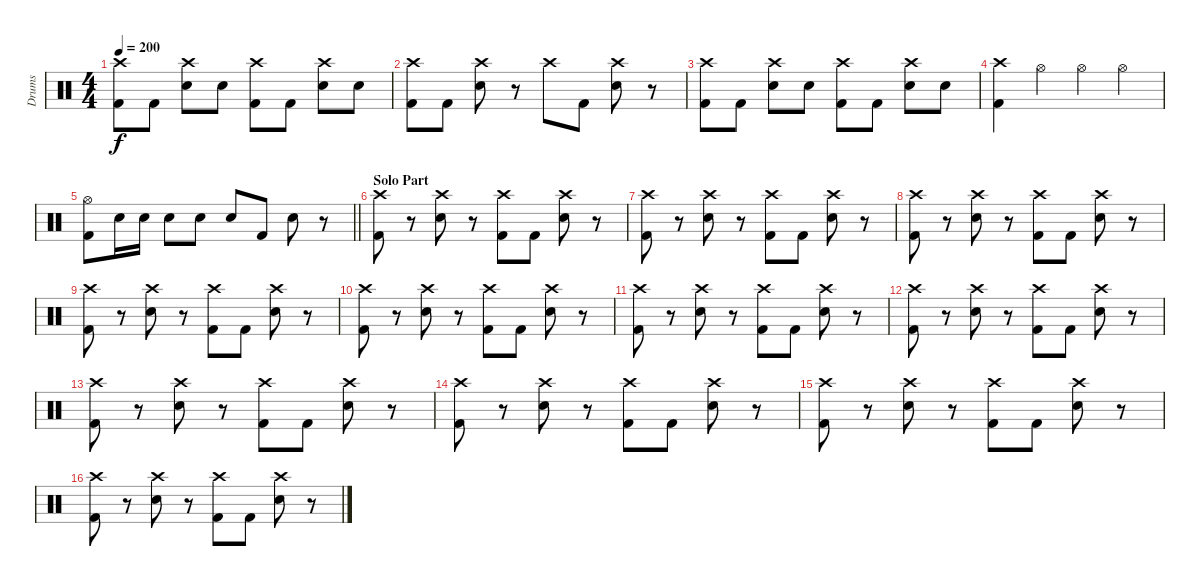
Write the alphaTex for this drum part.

\track ("Drums" "Drums") {instrument percussion}
\staff {score}
\articulation defaults
\ts (4 4)
\tempo 200
\clef neutral
\ks c
("Crash high (hit)" "Kick (hit) 2").8{dy f} "Kick (hit) 2".8 ("Crash high (hit)" "Electric Snare (hit)").8 "Electric Snare (hit)".8 ("Crash high (hit)" "Kick (hit) 2").8 "Kick (hit) 2".8 ("Crash high (hit)" "Electric Snare (hit)").8 "Electric Snare (hit)".8 |
("Crash high (hit)" "Kick (hit) 2").8 "Kick (hit) 2".8 ("Crash high (hit)" "Electric Snare (hit)").8 r.8 "Crash high (hit)".8 "Kick (hit) 2".8 ("Crash high (hit)" "Electric Snare (hit)").8 r.8 |
("Crash high (hit)" "Kick (hit) 2").8 "Kick (hit) 2".8 ("Crash high (hit)" "Electric Snare (hit)").8 "Electric Snare (hit)".8 ("Crash high (hit)" "Kick (hit) 2").8 "Kick (hit) 2".8 ("Crash high (hit)" "Electric Snare (hit)").8 "Electric Snare (hit)".8 |
("Crash high (hit)" "Kick (hit) 2").4 "Hi-Hat (open)".4 "Hi-Hat (open)".4 "Hi-Hat (open)".4 |
\barLineRight lightlight
("Hi-Hat (open)" "Kick (hit) 2").8 "Electric Snare (hit)".16 "Electric Snare (hit)".16 "Electric Snare (hit)".8 "Electric Snare (hit)".8 "Electric Snare (hit)".8 "Kick (hit) 2".8 "Electric Snare (hit)".8 r.8 |
\section ("" "Solo Part")
("Crash high (hit)" "Kick (hit) 2").8 r.8 ("Crash high (hit)" "Electric Snare (hit)").8 r.8 ("Crash high (hit)" "Kick (hit) 2").8 "Kick (hit) 2".8 ("Crash high (hit)" "Electric Snare (hit)").8 r.8 |
("Crash high (hit)" "Kick (hit) 2").8 r.8 ("Crash high (hit)" "Electric Snare (hit)").8 r.8 ("Crash high (hit)" "Kick (hit) 2").8 "Kick (hit) 2".8 ("Crash high (hit)" "Electric Snare (hit)").8 r.8 |
("Crash high (hit)" "Kick (hit) 2").8 r.8 ("Crash high (hit)" "Electric Snare (hit)").8 r.8 ("Crash high (hit)" "Kick (hit) 2").8 "Kick (hit) 2".8 ("Crash high (hit)" "Electric Snare (hit)").8 r.8 |
("Crash high (hit)" "Kick (hit) 2").8 r.8 ("Crash high (hit)" "Electric Snare (hit)").8 r.8 ("Crash high (hit)" "Kick (hit) 2").8 "Kick (hit) 2".8 ("Crash high (hit)" "Electric Snare (hit)").8 r.8 |
("Crash high (hit)" "Kick (hit) 2").8 r.8 ("Crash high (hit)" "Electric Snare (hit)").8 r.8 ("Crash high (hit)" "Kick (hit) 2").8 "Kick (hit) 2".8 ("Crash high (hit)" "Electric Snare (hit)").8 r.8 |
("Crash high (hit)" "Kick (hit) 2").8 r.8 ("Crash high (hit)" "Electric Snare (hit)").8 r.8 ("Crash high (hit)" "Kick (hit) 2").8 "Kick (hit) 2".8 ("Crash high (hit)" "Electric Snare (hit)").8 r.8 |
("Crash high (hit)" "Kick (hit) 2").8 r.8 ("Crash high (hit)" "Electric Snare (hit)").8 r.8 ("Crash high (hit)" "Kick (hit) 2").8 "Kick (hit) 2".8 ("Crash high (hit)" "Electric Snare (hit)").8 r.8 |
("Crash high (hit)" "Kick (hit) 2").8 r.8 ("Crash high (hit)" "Electric Snare (hit)").8 r.8 ("Crash high (hit)" "Kick (hit) 2").8 "Kick (hit) 2".8 ("Crash high (hit)" "Electric Snare (hit)").8 r.8 |
("Crash high (hit)" "Kick (hit) 2").8 r.8 ("Crash high (hit)" "Electric Snare (hit)").8 r.8 ("Crash high (hit)" "Kick (hit) 2").8 "Kick (hit) 2".8 ("Crash high (hit)" "Electric Snare (hit)").8 r.8 |
("Crash high (hit)" "Kick (hit) 2").8 r.8 ("Crash high (hit)" "Electric Snare (hit)").8 r.8 ("Crash high (hit)" "Kick (hit) 2").8 "Kick (hit) 2".8 ("Crash high (hit)" "Electric Snare (hit)").8 r.8 |
("Crash high (hit)" "Kick (hit) 2").8 r.8 ("Crash high (hit)" "Electric Snare (hit)").8 r.8 ("Crash high (hit)" "Kick (hit) 2").8 "Kick (hit) 2".8 ("Crash high (hit)" "Electric Snare (hit)").8 r.8
